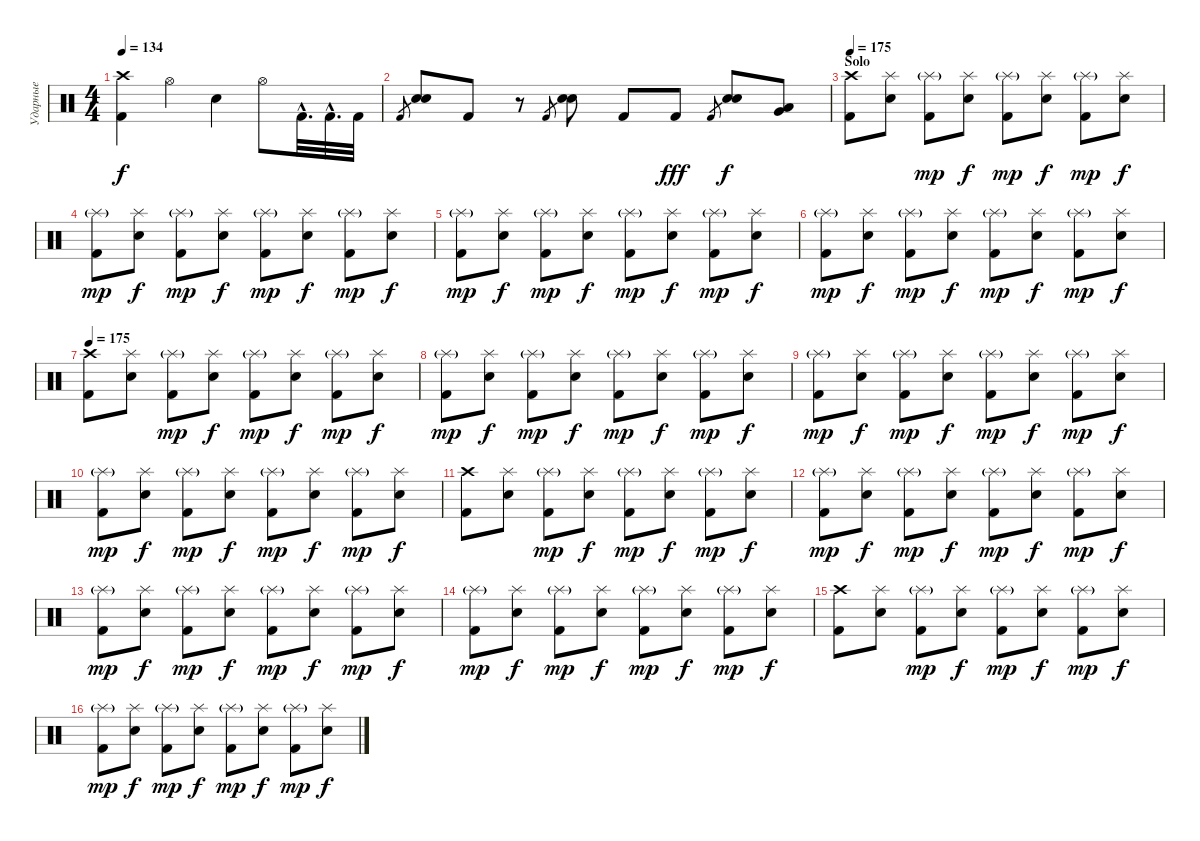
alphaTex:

\track ("Ударные" "Ударные") {instrument percussion}
\staff {score}
\articulation defaults
\ts (4 4)
\tempo 134
\clef neutral
\ks c
("Crash high (hit)" "Kick (hit) 2").4{dy f} "Hi-Hat (open)".4 "Electric Snare (hit)".4 "Hi-Hat (open)".8 "Kick (hit) 2"{hac}.32{d} "Kick (hit) 2"{hac}.32{d} "Kick (hit) 2".32 |
"Kick (hit) 2".8{gr} ("Electric Snare (hit)" "Electric Snare (hit)").8 "Kick (hit) 2".8 r.8 "Kick (hit) 2".8{gr} ("Electric Snare (hit)" "Electric Snare (hit)").8 "Kick (hit) 2".8 "Kick (hit) 2".8{dy fff} "Kick (hit) 2".8{gr} ("Electric Snare (hit)" "Electric Snare (hit)").8{dy f} ("Low Tom (hit)" "Very Low Tom (hit)").8 |
\section ("" "Solo")
\tempo 175
("Crash high (hit)" "Kick (hit) 2").8 ("Splash (hit)" "Electric Snare (hit)").8 ("Splash (hit)"{g} "Kick (hit) 2").8{dy mp} ("Splash (hit)" "Electric Snare (hit)").8{dy f} ("Splash (hit)"{g} "Kick (hit) 2").8{dy mp} ("Splash (hit)" "Electric Snare (hit)").8{dy f} ("Splash (hit)"{g} "Kick (hit) 2").8{dy mp} ("Splash (hit)" "Electric Snare (hit)").8{dy f} |
("Splash (hit)"{g} "Kick (hit) 2").8{dy mp} ("Splash (hit)" "Electric Snare (hit)").8{dy f} ("Splash (hit)"{g} "Kick (hit) 2").8{dy mp} ("Splash (hit)" "Electric Snare (hit)").8{dy f} ("Splash (hit)"{g} "Kick (hit) 2").8{dy mp} ("Splash (hit)" "Electric Snare (hit)").8{dy f} ("Splash (hit)"{g} "Kick (hit) 2").8{dy mp} ("Splash (hit)" "Electric Snare (hit)").8{dy f} |
("Splash (hit)"{g} "Kick (hit) 2").8{dy mp} ("Splash (hit)" "Electric Snare (hit)").8{dy f} ("Splash (hit)"{g} "Kick (hit) 2").8{dy mp} ("Splash (hit)" "Electric Snare (hit)").8{dy f} ("Splash (hit)"{g} "Kick (hit) 2").8{dy mp} ("Splash (hit)" "Electric Snare (hit)").8{dy f} ("Splash (hit)"{g} "Kick (hit) 2").8{dy mp} ("Splash (hit)" "Electric Snare (hit)").8{dy f} |
("Splash (hit)"{g} "Kick (hit) 2").8{dy mp} ("Splash (hit)" "Electric Snare (hit)").8{dy f} ("Splash (hit)"{g} "Kick (hit) 2").8{dy mp} ("Splash (hit)" "Electric Snare (hit)").8{dy f} ("Splash (hit)"{g} "Kick (hit) 2").8{dy mp} ("Splash (hit)" "Electric Snare (hit)").8{dy f} ("Splash (hit)"{g} "Kick (hit) 2").8{dy mp} ("Splash (hit)" "Electric Snare (hit)").8{dy f} |
\tempo 175
("Crash high (hit)" "Kick (hit) 2").8 ("Splash (hit)" "Electric Snare (hit)").8 ("Splash (hit)"{g} "Kick (hit) 2").8{dy mp} ("Splash (hit)" "Electric Snare (hit)").8{dy f} ("Splash (hit)"{g} "Kick (hit) 2").8{dy mp} ("Splash (hit)" "Electric Snare (hit)").8{dy f} ("Splash (hit)"{g} "Kick (hit) 2").8{dy mp} ("Splash (hit)" "Electric Snare (hit)").8{dy f} |
("Splash (hit)"{g} "Kick (hit) 2").8{dy mp} ("Splash (hit)" "Electric Snare (hit)").8{dy f} ("Splash (hit)"{g} "Kick (hit) 2").8{dy mp} ("Splash (hit)" "Electric Snare (hit)").8{dy f} ("Splash (hit)"{g} "Kick (hit) 2").8{dy mp} ("Splash (hit)" "Electric Snare (hit)").8{dy f} ("Splash (hit)"{g} "Kick (hit) 2").8{dy mp} ("Splash (hit)" "Electric Snare (hit)").8{dy f} |
("Splash (hit)"{g} "Kick (hit) 2").8{dy mp} ("Splash (hit)" "Electric Snare (hit)").8{dy f} ("Splash (hit)"{g} "Kick (hit) 2").8{dy mp} ("Splash (hit)" "Electric Snare (hit)").8{dy f} ("Splash (hit)"{g} "Kick (hit) 2").8{dy mp} ("Splash (hit)" "Electric Snare (hit)").8{dy f} ("Splash (hit)"{g} "Kick (hit) 2").8{dy mp} ("Splash (hit)" "Electric Snare (hit)").8{dy f} |
("Splash (hit)"{g} "Kick (hit) 2").8{dy mp} ("Splash (hit)" "Electric Snare (hit)").8{dy f} ("Splash (hit)"{g} "Kick (hit) 2").8{dy mp} ("Splash (hit)" "Electric Snare (hit)").8{dy f} ("Splash (hit)"{g} "Kick (hit) 2").8{dy mp} ("Splash (hit)" "Electric Snare (hit)").8{dy f} ("Splash (hit)"{g} "Kick (hit) 2").8{dy mp} ("Splash (hit)" "Electric Snare (hit)").8{dy f} |
("Crash high (hit)" "Kick (hit) 2").8 ("Splash (hit)" "Electric Snare (hit)").8 ("Splash (hit)"{g} "Kick (hit) 2").8{dy mp} ("Splash (hit)" "Electric Snare (hit)").8{dy f} ("Splash (hit)"{g} "Kick (hit) 2").8{dy mp} ("Splash (hit)" "Electric Snare (hit)").8{dy f} ("Splash (hit)"{g} "Kick (hit) 2").8{dy mp} ("Splash (hit)" "Electric Snare (hit)").8{dy f} |
("Splash (hit)"{g} "Kick (hit) 2").8{dy mp} ("Splash (hit)" "Electric Snare (hit)").8{dy f} ("Splash (hit)"{g} "Kick (hit) 2").8{dy mp} ("Splash (hit)" "Electric Snare (hit)").8{dy f} ("Splash (hit)"{g} "Kick (hit) 2").8{dy mp} ("Splash (hit)" "Electric Snare (hit)").8{dy f} ("Splash (hit)"{g} "Kick (hit) 2").8{dy mp} ("Splash (hit)" "Electric Snare (hit)").8{dy f} |
("Splash (hit)"{g} "Kick (hit) 2").8{dy mp} ("Splash (hit)" "Electric Snare (hit)").8{dy f} ("Splash (hit)"{g} "Kick (hit) 2").8{dy mp} ("Splash (hit)" "Electric Snare (hit)").8{dy f} ("Splash (hit)"{g} "Kick (hit) 2").8{dy mp} ("Splash (hit)" "Electric Snare (hit)").8{dy f} ("Splash (hit)"{g} "Kick (hit) 2").8{dy mp} ("Splash (hit)" "Electric Snare (hit)").8{dy f} |
("Splash (hit)"{g} "Kick (hit) 2").8{dy mp} ("Splash (hit)" "Electric Snare (hit)").8{dy f} ("Splash (hit)"{g} "Kick (hit) 2").8{dy mp} ("Splash (hit)" "Electric Snare (hit)").8{dy f} ("Splash (hit)"{g} "Kick (hit) 2").8{dy mp} ("Splash (hit)" "Electric Snare (hit)").8{dy f} ("Splash (hit)"{g} "Kick (hit) 2").8{dy mp} ("Splash (hit)" "Electric Snare (hit)").8{dy f} |
("Crash high (hit)" "Kick (hit) 2").8 ("Splash (hit)" "Electric Snare (hit)").8 ("Splash (hit)"{g} "Kick (hit) 2").8{dy mp} ("Splash (hit)" "Electric Snare (hit)").8{dy f} ("Splash (hit)"{g} "Kick (hit) 2").8{dy mp} ("Splash (hit)" "Electric Snare (hit)").8{dy f} ("Splash (hit)"{g} "Kick (hit) 2").8{dy mp} ("Splash (hit)" "Electric Snare (hit)").8{dy f} |
("Splash (hit)"{g} "Kick (hit) 2").8{dy mp} ("Splash (hit)" "Electric Snare (hit)").8{dy f} ("Splash (hit)"{g} "Kick (hit) 2").8{dy mp} ("Splash (hit)" "Electric Snare (hit)").8{dy f} ("Splash (hit)"{g} "Kick (hit) 2").8{dy mp} ("Splash (hit)" "Electric Snare (hit)").8{dy f} ("Splash (hit)"{g} "Kick (hit) 2").8{dy mp} ("Splash (hit)" "Electric Snare (hit)").8{dy f}
